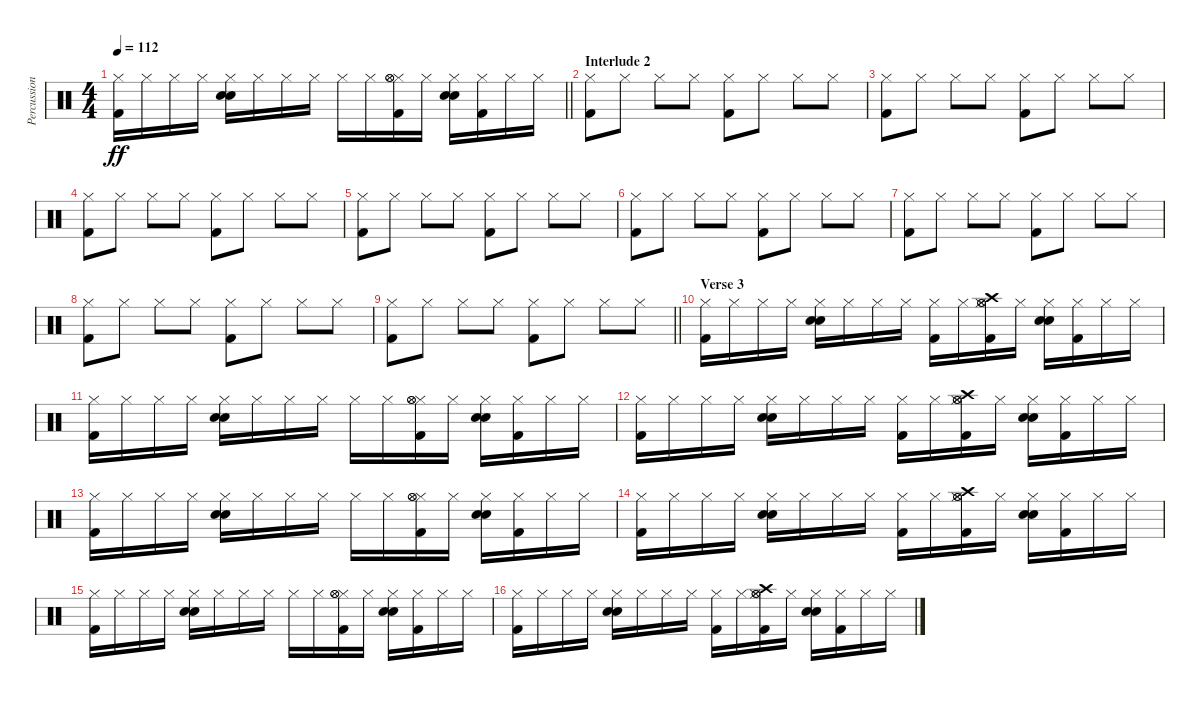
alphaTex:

\track ("Percussion" "Percussion") {instrument percussion}
\staff {score}
\articulation defaults
\ts (4 4)
\tempo 112
\clef neutral
\barLineRight lightlight
\ks c
("Kick (hit) 2" "Hi-Hat (closed)").16{dy ff} "Hi-Hat (closed)".16 "Hi-Hat (closed)".16 "Hi-Hat (closed)".16 ("Snare (hit) 2" "Hi-Hat (closed)" "Hand Clap (hit)").16 "Hi-Hat (closed)".16 "Hi-Hat (closed)".16 "Hi-Hat (closed)".16 "Hi-Hat (closed)".16 "Hi-Hat (closed)".16 ("Kick (hit) 2" "Hi-Hat (closed)" "Hi-Hat (open)" "Hi-Hat (open)").16 "Hi-Hat (closed)".16 ("Snare (hit) 2" "Hi-Hat (closed)" "Hand Clap (hit)").16 ("Kick (hit) 2" "Hi-Hat (closed)").16 "Hi-Hat (closed)".16 "Hi-Hat (closed)".16 |
\section ("" "Interlude 2")
("Kick (hit) 2" "Hi-Hat (closed)").8 "Hi-Hat (closed)".8 "Hi-Hat (closed)".8 "Hi-Hat (closed)".8 ("Kick (hit) 2" "Hi-Hat (closed)").8 "Hi-Hat (closed)".8 "Hi-Hat (closed)".8 "Hi-Hat (closed)".8 |
("Kick (hit) 2" "Hi-Hat (closed)").8 "Hi-Hat (closed)".8 "Hi-Hat (closed)".8 "Hi-Hat (closed)".8 ("Kick (hit) 2" "Hi-Hat (closed)").8 "Hi-Hat (closed)".8 "Hi-Hat (closed)".8 "Hi-Hat (closed)".8 |
("Kick (hit) 2" "Hi-Hat (closed)").8 "Hi-Hat (closed)".8 "Hi-Hat (closed)".8 "Hi-Hat (closed)".8 ("Kick (hit) 2" "Hi-Hat (closed)").8 "Hi-Hat (closed)".8 "Hi-Hat (closed)".8 "Hi-Hat (closed)".8 |
("Kick (hit) 2" "Hi-Hat (closed)").8 "Hi-Hat (closed)".8 "Hi-Hat (closed)".8 "Hi-Hat (closed)".8 ("Kick (hit) 2" "Hi-Hat (closed)").8 "Hi-Hat (closed)".8 "Hi-Hat (closed)".8 "Hi-Hat (closed)".8 |
("Kick (hit) 2" "Hi-Hat (closed)").8 "Hi-Hat (closed)".8 "Hi-Hat (closed)".8 "Hi-Hat (closed)".8 ("Kick (hit) 2" "Hi-Hat (closed)").8 "Hi-Hat (closed)".8 "Hi-Hat (closed)".8 "Hi-Hat (closed)".8 |
("Kick (hit) 2" "Hi-Hat (closed)").8 "Hi-Hat (closed)".8 "Hi-Hat (closed)".8 "Hi-Hat (closed)".8 ("Kick (hit) 2" "Hi-Hat (closed)").8 "Hi-Hat (closed)".8 "Hi-Hat (closed)".8 "Hi-Hat (closed)".8 |
("Kick (hit) 2" "Hi-Hat (closed)").8 "Hi-Hat (closed)".8 "Hi-Hat (closed)".8 "Hi-Hat (closed)".8 ("Kick (hit) 2" "Hi-Hat (closed)").8 "Hi-Hat (closed)".8 "Hi-Hat (closed)".8 "Hi-Hat (closed)".8 |
\barLineRight lightlight
("Kick (hit) 2" "Hi-Hat (closed)").8 "Hi-Hat (closed)".8 "Hi-Hat (closed)".8 "Hi-Hat (closed)".8 ("Kick (hit) 2" "Hi-Hat (closed)").8 "Hi-Hat (closed)".8 "Hi-Hat (closed)".8 "Hi-Hat (closed)".8 |
\section ("" "Verse 3")
("Kick (hit) 2" "Hi-Hat (closed)").16 "Hi-Hat (closed)".16 "Hi-Hat (closed)".16 "Hi-Hat (closed)".16 ("Snare (hit) 2" "Hi-Hat (closed)" "Hand Clap (hit)").16 "Hi-Hat (closed)".16 "Hi-Hat (closed)".16 "Hi-Hat (closed)".16 ("Kick (hit) 2" "Hi-Hat (closed)").16 "Hi-Hat (closed)".16 ("Kick (hit) 2" "Crash high (hit)" "Hi-Hat (closed)" "Hi-Hat (open)" "Hi-Hat (open)").16 "Hi-Hat (closed)".16 ("Snare (hit) 2" "Hi-Hat (closed)" "Hand Clap (hit)").16 ("Kick (hit) 2" "Hi-Hat (closed)").16 "Hi-Hat (closed)".16 "Hi-Hat (closed)".16 |
("Kick (hit) 2" "Hi-Hat (closed)").16 "Hi-Hat (closed)".16 "Hi-Hat (closed)".16 "Hi-Hat (closed)".16 ("Snare (hit) 2" "Hi-Hat (closed)" "Hand Clap (hit)").16 "Hi-Hat (closed)".16 "Hi-Hat (closed)".16 "Hi-Hat (closed)".16 "Hi-Hat (closed)".16 "Hi-Hat (closed)".16 ("Kick (hit) 2" "Hi-Hat (closed)" "Hi-Hat (open)" "Hi-Hat (open)").16 "Hi-Hat (closed)".16 ("Snare (hit) 2" "Hi-Hat (closed)" "Hand Clap (hit)").16 ("Kick (hit) 2" "Hi-Hat (closed)").16 "Hi-Hat (closed)".16 "Hi-Hat (closed)".16 |
("Kick (hit) 2" "Hi-Hat (closed)").16 "Hi-Hat (closed)".16 "Hi-Hat (closed)".16 "Hi-Hat (closed)".16 ("Snare (hit) 2" "Hi-Hat (closed)" "Hand Clap (hit)").16 "Hi-Hat (closed)".16 "Hi-Hat (closed)".16 "Hi-Hat (closed)".16 ("Kick (hit) 2" "Hi-Hat (closed)").16 "Hi-Hat (closed)".16 ("Kick (hit) 2" "Crash high (hit)" "Hi-Hat (closed)" "Hi-Hat (open)" "Hi-Hat (open)").16 "Hi-Hat (closed)".16 ("Snare (hit) 2" "Hi-Hat (closed)" "Hand Clap (hit)").16 ("Kick (hit) 2" "Hi-Hat (closed)").16 "Hi-Hat (closed)".16 "Hi-Hat (closed)".16 |
("Kick (hit) 2" "Hi-Hat (closed)").16 "Hi-Hat (closed)".16 "Hi-Hat (closed)".16 "Hi-Hat (closed)".16 ("Snare (hit) 2" "Hi-Hat (closed)" "Hand Clap (hit)").16 "Hi-Hat (closed)".16 "Hi-Hat (closed)".16 "Hi-Hat (closed)".16 "Hi-Hat (closed)".16 "Hi-Hat (closed)".16 ("Kick (hit) 2" "Hi-Hat (closed)" "Hi-Hat (open)" "Hi-Hat (open)").16 "Hi-Hat (closed)".16 ("Snare (hit) 2" "Hi-Hat (closed)" "Hand Clap (hit)").16 ("Kick (hit) 2" "Hi-Hat (closed)").16 "Hi-Hat (closed)".16 "Hi-Hat (closed)".16 |
("Kick (hit) 2" "Hi-Hat (closed)").16 "Hi-Hat (closed)".16 "Hi-Hat (closed)".16 "Hi-Hat (closed)".16 ("Snare (hit) 2" "Hi-Hat (closed)" "Hand Clap (hit)").16 "Hi-Hat (closed)".16 "Hi-Hat (closed)".16 "Hi-Hat (closed)".16 ("Kick (hit) 2" "Hi-Hat (closed)").16 "Hi-Hat (closed)".16 ("Kick (hit) 2" "Crash high (hit)" "Hi-Hat (closed)" "Hi-Hat (open)" "Hi-Hat (open)").16 "Hi-Hat (closed)".16 ("Snare (hit) 2" "Hi-Hat (closed)" "Hand Clap (hit)").16 ("Kick (hit) 2" "Hi-Hat (closed)").16 "Hi-Hat (closed)".16 "Hi-Hat (closed)".16 |
("Kick (hit) 2" "Hi-Hat (closed)").16 "Hi-Hat (closed)".16 "Hi-Hat (closed)".16 "Hi-Hat (closed)".16 ("Snare (hit) 2" "Hi-Hat (closed)" "Hand Clap (hit)").16 "Hi-Hat (closed)".16 "Hi-Hat (closed)".16 "Hi-Hat (closed)".16 "Hi-Hat (closed)".16 "Hi-Hat (closed)".16 ("Kick (hit) 2" "Hi-Hat (closed)" "Hi-Hat (open)" "Hi-Hat (open)").16 "Hi-Hat (closed)".16 ("Snare (hit) 2" "Hi-Hat (closed)" "Hand Clap (hit)").16 ("Kick (hit) 2" "Hi-Hat (closed)").16 "Hi-Hat (closed)".16 "Hi-Hat (closed)".16 |
("Kick (hit) 2" "Hi-Hat (closed)").16 "Hi-Hat (closed)".16 "Hi-Hat (closed)".16 "Hi-Hat (closed)".16 ("Snare (hit) 2" "Hi-Hat (closed)" "Hand Clap (hit)").16 "Hi-Hat (closed)".16 "Hi-Hat (closed)".16 "Hi-Hat (closed)".16 ("Kick (hit) 2" "Hi-Hat (closed)").16 "Hi-Hat (closed)".16 ("Kick (hit) 2" "Crash high (hit)" "Hi-Hat (closed)" "Hi-Hat (open)" "Hi-Hat (open)").16 "Hi-Hat (closed)".16 ("Snare (hit) 2" "Hi-Hat (closed)" "Hand Clap (hit)").16 ("Kick (hit) 2" "Hi-Hat (closed)").16 "Hi-Hat (closed)".16 "Hi-Hat (closed)".16
